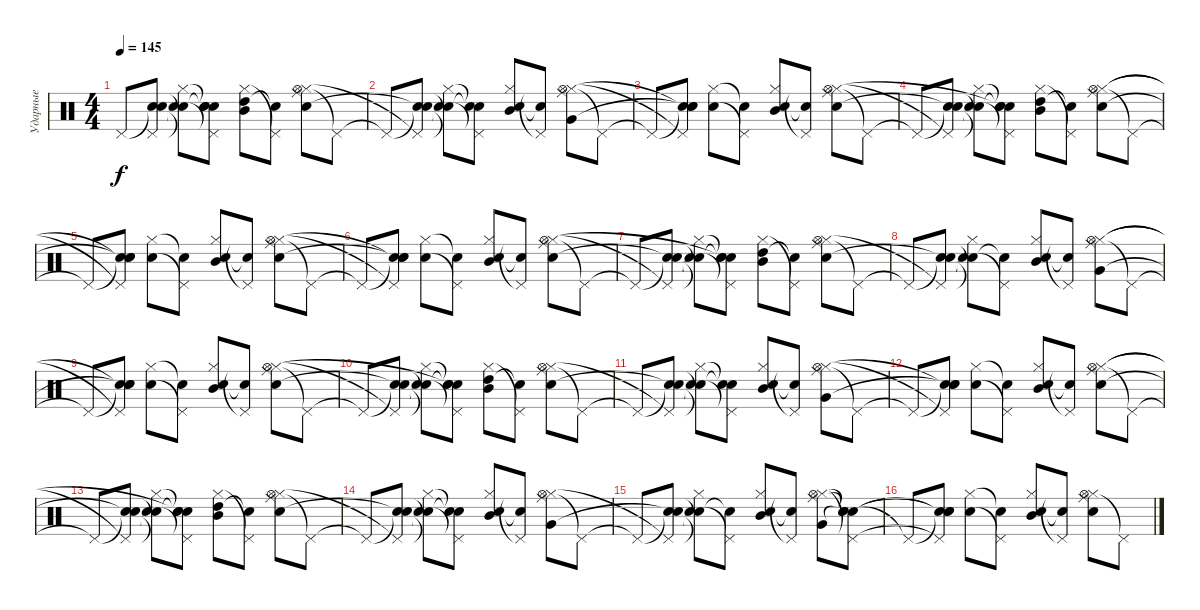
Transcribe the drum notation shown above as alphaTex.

\track ("Ударные" "Ударные") {instrument percussion}
\staff {score}
\articulation defaults
\ts (4 4)
\tempo 145
\clef neutral
\ks c "Pedal Hi-Hat (hit)"{t}.8{dy f}
("Snare (hit)"{t} "Pedal Hi-Hat (hit)"{t} "Snare (hit)"{t}).8 ("Snare (hit)"{t} "Snare (hit) 2"{t} "Hi-Hat (closed)"{t}).8 ("Snare (hit)"{t} "Pedal Hi-Hat (hit)"{t} "Snare (hit)"{t} "Snare (hit)"{t}).8 ("Hi-Hat (closed)" "High Tom (hit)" "Mid Tom (hit)").8 ("Pedal Hi-Hat (hit)"{t} "Snare (hit)"{t}).8 ("Ride (middle)" "Hi-Hat (closed)" "Snare (hit) 2" "Hi-Hat (open)").8 "Pedal Hi-Hat (hit)"{t}.8 |
"Pedal Hi-Hat (hit)"{t}.8 ("Snare (hit)"{t} "Pedal Hi-Hat (hit)"{t} "Snare (hit)"{t}).8 ("Snare (hit)"{t} "Snare (hit) 2"{t} "Hi-Hat (closed)"{t}).8 ("Pedal Hi-Hat (hit)"{t} "Snare (hit)"{t} "Snare (hit)"{t}).8 ("Hi-Hat (closed)" "Snare (hit) 2" "Mid Tom (hit)").8 ("Pedal Hi-Hat (hit)"{t} "Snare (hit)"{t}).8 ("Ride (middle)" "Hi-Hat (closed)" "Very Low Tom (hit)" "Hi-Hat (open)").8 "Pedal Hi-Hat (hit)"{t}.8 |
"Pedal Hi-Hat (hit)"{t}.8 ("Snare (hit)"{t} "Pedal Hi-Hat (hit)"{t} "Snare (hit)"{t} "Snare (hit)"{t}).8 ("Snare (hit) 2" "Hi-Hat (closed)").8 ("Pedal Hi-Hat (hit)"{t} "Snare (hit)"{t}).8 ("Hi-Hat (closed)" "Snare (hit) 2" "Mid Tom (hit)").8 ("Pedal Hi-Hat (hit)"{t} "Snare (hit)"{t}).8 ("Ride (middle)" "Hi-Hat (closed)" "Snare (hit) 2" "Hi-Hat (open)").8 "Pedal Hi-Hat (hit)"{t}.8 |
"Pedal Hi-Hat (hit)"{t}.8 ("Snare (hit)"{t} "Pedal Hi-Hat (hit)"{t} "Snare (hit)"{t}).8 ("Snare (hit)"{t} "Snare (hit) 2"{t} "Hi-Hat (closed)"{t}).8 ("Snare (hit)"{t} "Pedal Hi-Hat (hit)"{t} "Snare (hit)"{t} "Snare (hit)"{t}).8 ("Hi-Hat (closed)" "High Tom (hit)" "Mid Tom (hit)").8 ("Pedal Hi-Hat (hit)"{t} "Snare (hit)"{t}).8 ("Ride (middle)" "Hi-Hat (closed)" "Snare (hit) 2" "Hi-Hat (open)").8 "Pedal Hi-Hat (hit)"{t}.8 |
"Pedal Hi-Hat (hit)"{t}.8 ("Snare (hit)"{t} "Pedal Hi-Hat (hit)"{t} "Snare (hit)"{t} "Snare (hit)"{t}).8 ("Snare (hit) 2" "Hi-Hat (closed)").8 ("Pedal Hi-Hat (hit)"{t} "Snare (hit)"{t}).8 ("Hi-Hat (closed)" "Snare (hit) 2" "Mid Tom (hit)").8 ("Pedal Hi-Hat (hit)"{t} "Snare (hit)"{t}).8 ("Ride (middle)" "Hi-Hat (closed)" "Snare (hit) 2" "Hi-Hat (open)").8 "Pedal Hi-Hat (hit)"{t}.8 |
"Pedal Hi-Hat (hit)"{t}.8 ("Snare (hit)"{t} "Pedal Hi-Hat (hit)"{t} "Snare (hit)"{t} "Snare (hit)"{t}).8 ("Snare (hit) 2" "Hi-Hat (closed)").8 ("Pedal Hi-Hat (hit)"{t} "Snare (hit)"{t}).8 ("Hi-Hat (closed)" "Snare (hit) 2" "Mid Tom (hit)").8 ("Pedal Hi-Hat (hit)"{t} "Snare (hit)"{t}).8 ("Ride (middle)" "Hi-Hat (closed)" "Snare (hit) 2" "Hi-Hat (open)").8 "Pedal Hi-Hat (hit)"{t}.8 |
"Pedal Hi-Hat (hit)"{t}.8 ("Snare (hit)"{t} "Pedal Hi-Hat (hit)"{t} "Snare (hit)"{t}).8 ("Snare (hit)"{t} "Snare (hit) 2"{t} "Hi-Hat (closed)"{t}).8 ("Snare (hit)"{t} "Pedal Hi-Hat (hit)"{t} "Snare (hit)"{t} "Snare (hit)"{t}).8 ("Hi-Hat (closed)" "High Tom (hit)" "Mid Tom (hit)").8 ("Pedal Hi-Hat (hit)"{t} "Snare (hit)"{t}).8 ("Ride (middle)" "Hi-Hat (closed)" "Snare (hit) 2" "Hi-Hat (open)").8 "Pedal Hi-Hat (hit)"{t}.8 |
"Pedal Hi-Hat (hit)"{t}.8 ("Snare (hit)"{t} "Pedal Hi-Hat (hit)"{t} "Snare (hit)"{t}).8 ("Snare (hit)"{t} "Snare (hit) 2"{t} "Hi-Hat (closed)"{t}).8 ("Pedal Hi-Hat (hit)"{t} "Snare (hit)"{t}).8 ("Hi-Hat (closed)" "Snare (hit) 2" "Mid Tom (hit)").8 ("Pedal Hi-Hat (hit)"{t} "Snare (hit)"{t}).8 ("Ride (middle)" "Hi-Hat (closed)" "Very Low Tom (hit)" "Hi-Hat (open)").8 "Pedal Hi-Hat (hit)"{t}.8 |
"Pedal Hi-Hat (hit)"{t}.8 ("Snare (hit)"{t} "Pedal Hi-Hat (hit)"{t} "Snare (hit)"{t} "Snare (hit)"{t}).8 ("Snare (hit) 2" "Hi-Hat (closed)").8 ("Pedal Hi-Hat (hit)"{t} "Snare (hit)"{t}).8 ("Hi-Hat (closed)" "Snare (hit) 2" "Mid Tom (hit)").8 ("Pedal Hi-Hat (hit)"{t} "Snare (hit)"{t}).8 ("Ride (middle)" "Hi-Hat (closed)" "Snare (hit) 2" "Hi-Hat (open)").8 "Pedal Hi-Hat (hit)"{t}.8 |
"Pedal Hi-Hat (hit)"{t}.8 ("Snare (hit)"{t} "Pedal Hi-Hat (hit)"{t} "Snare (hit)"{t}).8 ("Snare (hit)"{t} "Snare (hit) 2"{t} "Hi-Hat (closed)"{t}).8 ("Snare (hit)"{t} "Pedal Hi-Hat (hit)"{t} "Snare (hit)"{t} "Snare (hit)"{t}).8 ("Hi-Hat (closed)" "High Tom (hit)" "Mid Tom (hit)").8 ("Pedal Hi-Hat (hit)"{t} "Snare (hit)"{t}).8 ("Ride (middle)" "Hi-Hat (closed)" "Snare (hit) 2" "Hi-Hat (open)").8 "Pedal Hi-Hat (hit)"{t}.8 |
"Pedal Hi-Hat (hit)"{t}.8 ("Snare (hit)"{t} "Pedal Hi-Hat (hit)"{t} "Snare (hit)"{t}).8 ("Snare (hit)"{t} "Snare (hit) 2"{t} "Hi-Hat (closed)"{t}).8 ("Pedal Hi-Hat (hit)"{t} "Snare (hit)"{t} "Snare (hit)"{t}).8 ("Hi-Hat (closed)" "Snare (hit) 2" "Mid Tom (hit)").8 ("Pedal Hi-Hat (hit)"{t} "Snare (hit)"{t}).8 ("Ride (middle)" "Hi-Hat (closed)" "Very Low Tom (hit)" "Hi-Hat (open)").8 "Pedal Hi-Hat (hit)"{t}.8 |
"Pedal Hi-Hat (hit)"{t}.8 ("Snare (hit)"{t} "Pedal Hi-Hat (hit)"{t} "Snare (hit)"{t} "Snare (hit)"{t}).8 ("Snare (hit) 2" "Hi-Hat (closed)").8 ("Pedal Hi-Hat (hit)"{t} "Snare (hit)"{t}).8 ("Hi-Hat (closed)" "Snare (hit) 2" "Mid Tom (hit)").8 ("Pedal Hi-Hat (hit)"{t} "Snare (hit)"{t}).8 ("Ride (middle)" "Hi-Hat (closed)" "Snare (hit) 2" "Hi-Hat (open)").8 "Pedal Hi-Hat (hit)"{t}.8 |
"Pedal Hi-Hat (hit)"{t}.8 ("Snare (hit)"{t} "Pedal Hi-Hat (hit)"{t} "Snare (hit)"{t}).8 ("Snare (hit)"{t} "Snare (hit) 2"{t} "Hi-Hat (closed)"{t}).8 ("Snare (hit)"{t} "Pedal Hi-Hat (hit)"{t} "Snare (hit)"{t} "Snare (hit)"{t}).8 ("Hi-Hat (closed)" "High Tom (hit)" "Mid Tom (hit)").8 ("Pedal Hi-Hat (hit)"{t} "Snare (hit)"{t}).8 ("Ride (middle)" "Hi-Hat (closed)" "Snare (hit) 2" "Hi-Hat (open)").8 "Pedal Hi-Hat (hit)"{t}.8 |
"Pedal Hi-Hat (hit)"{t}.8 ("Snare (hit)"{t} "Pedal Hi-Hat (hit)"{t} "Snare (hit)"{t}).8 ("Snare (hit)"{t} "Snare (hit) 2"{t} "Hi-Hat (closed)"{t}).8 ("Pedal Hi-Hat (hit)"{t} "Snare (hit)"{t} "Snare (hit)"{t}).8 ("Hi-Hat (closed)" "Snare (hit) 2" "Mid Tom (hit)").8 ("Pedal Hi-Hat (hit)"{t} "Snare (hit)"{t}).8 ("Ride (middle)" "Hi-Hat (closed)" "Very Low Tom (hit)" "Hi-Hat (open)").8 "Pedal Hi-Hat (hit)"{t}.8 |
"Pedal Hi-Hat (hit)"{t}.8 ("Snare (hit)"{t} "Pedal Hi-Hat (hit)"{t} "Snare (hit)"{t}).8 ("Snare (hit)"{t} "Snare (hit) 2"{t} "Hi-Hat (closed)"{t}).8 ("Pedal Hi-Hat (hit)"{t} "Snare (hit)"{t}).8 ("Hi-Hat (closed)" "Snare (hit) 2" "Mid Tom (hit)").8 ("Pedal Hi-Hat (hit)"{t} "Snare (hit)"{t}).8 ("Ride (middle)" "Hi-Hat (closed)" "Very Low Tom (hit)" "Hi-Hat (open)").8 ("Snare (hit)"{t} "Pedal Hi-Hat (hit)"{t} "Snare (hit)"{t} "Snare (hit)"{t}).8 |
"Pedal Hi-Hat (hit)"{t}.8 ("Snare (hit)"{t} "Pedal Hi-Hat (hit)"{t} "Snare (hit)"{t} "Snare (hit)"{t}).8 ("Snare (hit) 2" "Hi-Hat (closed)").8 ("Pedal Hi-Hat (hit)"{t} "Snare (hit)"{t}).8 ("Hi-Hat (closed)" "Snare (hit) 2" "Mid Tom (hit)").8 ("Pedal Hi-Hat (hit)"{t} "Snare (hit)"{t}).8 ("Ride (middle)" "Hi-Hat (closed)" "Snare (hit) 2" "Hi-Hat (open)").8 "Pedal Hi-Hat (hit)"{t}.8
